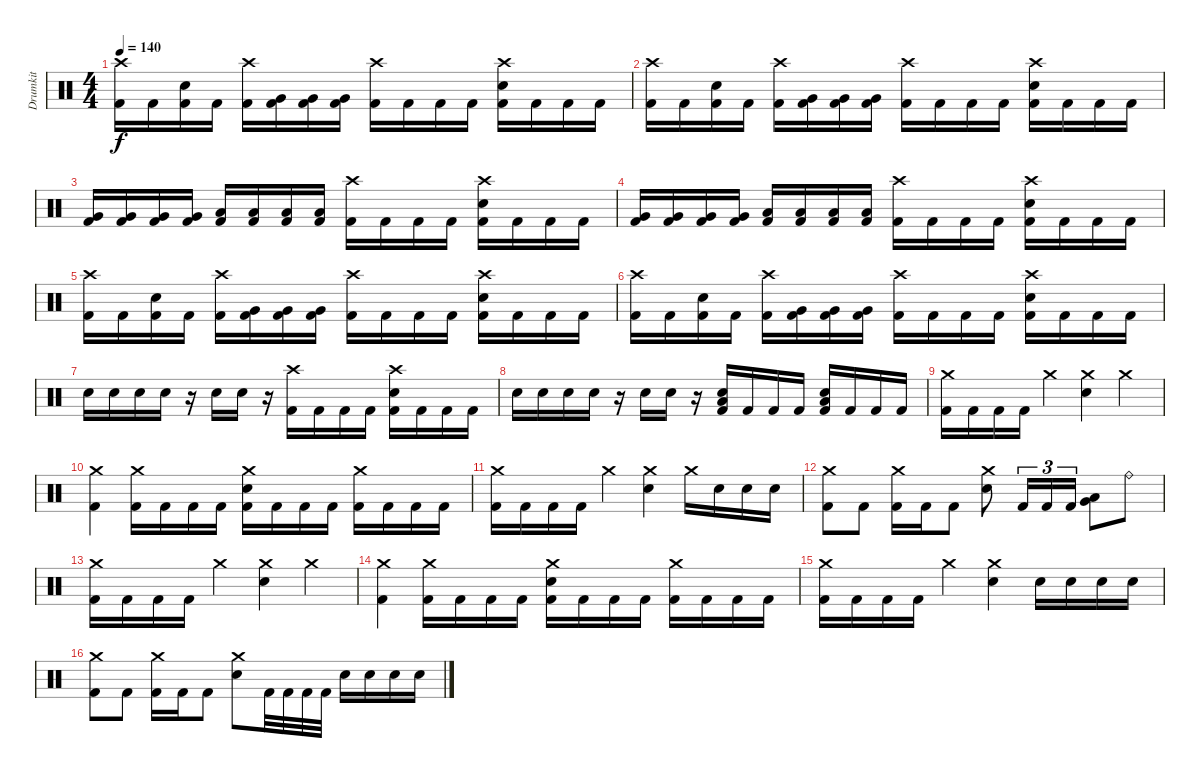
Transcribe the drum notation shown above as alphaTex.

\track ("Drumkit" "Drumkit") {instrument percussion}
\staff {score}
\articulation defaults
\ts (4 4)
\tempo 140
\clef neutral
\ks c
("Crash high (hit)" "Kick (hit) 2").16{dy f} "Kick (hit) 2".16 ("Electric Snare (hit)" "Kick (hit) 2").16 "Kick (hit) 2".16 ("Crash high (hit)" "Kick (hit) 2").16 ("Very Low Tom (hit)" "Kick (hit) 2").16 ("Very Low Tom (hit)" "Kick (hit) 2").16 ("Very Low Tom (hit)" "Kick (hit) 2").16 ("Crash high (hit)" "Kick (hit) 2").16 "Kick (hit) 2".16 "Kick (hit) 2".16 "Kick (hit) 2".16 ("Crash high (hit)" "Electric Snare (hit)" "Kick (hit) 2").16 "Kick (hit) 2".16 "Kick (hit) 2".16 "Kick (hit) 2".16 |
("Crash high (hit)" "Kick (hit) 2").16 "Kick (hit) 2".16 ("Electric Snare (hit)" "Kick (hit) 2").16 "Kick (hit) 2".16 ("Crash high (hit)" "Kick (hit) 2").16 ("Very Low Tom (hit)" "Kick (hit) 2").16 ("Very Low Tom (hit)" "Kick (hit) 2").16 ("Very Low Tom (hit)" "Kick (hit) 2").16 ("Crash high (hit)" "Kick (hit) 2").16 "Kick (hit) 2".16 "Kick (hit) 2".16 "Kick (hit) 2".16 ("Crash high (hit)" "Electric Snare (hit)" "Kick (hit) 2").16 "Kick (hit) 2".16 "Kick (hit) 2".16 "Kick (hit) 2".16 |
("Very Low Tom (hit)" "Kick (hit) 2").16 ("Very Low Tom (hit)" "Kick (hit) 2").16 ("Very Low Tom (hit)" "Kick (hit) 2").16 ("Very Low Tom (hit)" "Kick (hit) 2").16 ("Low Floor Tom (hit)" "Kick (hit) 2").16 ("Low Floor Tom (hit)" "Kick (hit) 2").16 ("Low Floor Tom (hit)" "Kick (hit) 2").16 ("Low Floor Tom (hit)" "Kick (hit) 2").16 ("Crash high (hit)" "Kick (hit) 2").16 "Kick (hit) 2".16 "Kick (hit) 2".16 "Kick (hit) 2".16 ("Crash high (hit)" "Electric Snare (hit)" "Kick (hit) 2").16 "Kick (hit) 2".16 "Kick (hit) 2".16 "Kick (hit) 2".16 |
("Very Low Tom (hit)" "Kick (hit) 2").16 ("Very Low Tom (hit)" "Kick (hit) 2").16 ("Very Low Tom (hit)" "Kick (hit) 2").16 ("Very Low Tom (hit)" "Kick (hit) 2").16 ("Low Floor Tom (hit)" "Kick (hit) 2").16 ("Low Floor Tom (hit)" "Kick (hit) 2").16 ("Low Floor Tom (hit)" "Kick (hit) 2").16 ("Low Floor Tom (hit)" "Kick (hit) 2").16 ("Crash high (hit)" "Kick (hit) 2").16 "Kick (hit) 2".16 "Kick (hit) 2".16 "Kick (hit) 2".16 ("Crash high (hit)" "Electric Snare (hit)" "Kick (hit) 2").16 "Kick (hit) 2".16 "Kick (hit) 2".16 "Kick (hit) 2".16 |
("Crash high (hit)" "Kick (hit) 2").16 "Kick (hit) 2".16 ("Electric Snare (hit)" "Kick (hit) 2").16 "Kick (hit) 2".16 ("Crash high (hit)" "Kick (hit) 2").16 ("Very Low Tom (hit)" "Kick (hit) 2").16 ("Very Low Tom (hit)" "Kick (hit) 2").16 ("Very Low Tom (hit)" "Kick (hit) 2").16 ("Crash high (hit)" "Kick (hit) 2").16 "Kick (hit) 2".16 "Kick (hit) 2".16 "Kick (hit) 2".16 ("Crash high (hit)" "Electric Snare (hit)" "Kick (hit) 2").16 "Kick (hit) 2".16 "Kick (hit) 2".16 "Kick (hit) 2".16 |
("Crash high (hit)" "Kick (hit) 2").16 "Kick (hit) 2".16 ("Electric Snare (hit)" "Kick (hit) 2").16 "Kick (hit) 2".16 ("Crash high (hit)" "Kick (hit) 2").16 ("Very Low Tom (hit)" "Kick (hit) 2").16 ("Very Low Tom (hit)" "Kick (hit) 2").16 ("Very Low Tom (hit)" "Kick (hit) 2").16 ("Crash high (hit)" "Kick (hit) 2").16 "Kick (hit) 2".16 "Kick (hit) 2".16 "Kick (hit) 2".16 ("Crash high (hit)" "Electric Snare (hit)" "Kick (hit) 2").16 "Kick (hit) 2".16 "Kick (hit) 2".16 "Kick (hit) 2".16 |
"Electric Snare (hit)".16 "Electric Snare (hit)".16 "Electric Snare (hit)".16 "Electric Snare (hit)".16 r.16 "Electric Snare (hit)".16 "Electric Snare (hit)".16 r.16 ("Crash high (hit)" "Kick (hit) 2").16 "Kick (hit) 2".16 "Kick (hit) 2".16 "Kick (hit) 2".16 ("Crash high (hit)" "Electric Snare (hit)" "Kick (hit) 2").16 "Kick (hit) 2".16 "Kick (hit) 2".16 "Kick (hit) 2".16 |
"Electric Snare (hit)".16 "Electric Snare (hit)".16 "Electric Snare (hit)".16 "Electric Snare (hit)".16 r.16 "Electric Snare (hit)".16 "Electric Snare (hit)".16 r.16 ("Low Floor Tom (hit)" "Electric Snare (hit)" "Kick (hit) 2").16 "Kick (hit) 2".16 "Kick (hit) 2".16 "Kick (hit) 2".16 ("Low Floor Tom (hit)" "Electric Snare (hit)" "Kick (hit) 2").16 "Kick (hit) 2".16 "Kick (hit) 2".16 "Kick (hit) 2".16 |
("Crash medium (hit)" "Kick (hit) 2").16 "Kick (hit) 2".16 "Kick (hit) 2".16 "Kick (hit) 2".16 "Crash medium (hit)".4 ("Crash medium (hit)" "Electric Snare (hit)").4 "Crash medium (hit)".4 |
("Crash medium (hit)" "Kick (hit) 2").4 ("Crash medium (hit)" "Kick (hit) 2").16 "Kick (hit) 2".16 "Kick (hit) 2".16 "Kick (hit) 2".16 ("Crash medium (hit)" "Electric Snare (hit)" "Kick (hit) 2").16 "Kick (hit) 2".16 "Kick (hit) 2".16 "Kick (hit) 2".16 ("Crash medium (hit)" "Kick (hit) 2").16 "Kick (hit) 2".16 "Kick (hit) 2".16 "Kick (hit) 2".16 |
("Crash medium (hit)" "Kick (hit) 2").16 "Kick (hit) 2".16 "Kick (hit) 2".16 "Kick (hit) 2".16 "Crash medium (hit)".4 ("Crash medium (hit)" "Electric Snare (hit)").4 "Crash medium (hit)".16 "Electric Snare (hit)".16 "Electric Snare (hit)".16 "Electric Snare (hit)".16 |
("Crash medium (hit)" "Kick (hit) 2").8 "Kick (hit) 2".8 ("Crash medium (hit)" "Kick (hit) 2").16 "Kick (hit) 2".16 "Kick (hit) 2".8 ("Crash medium (hit)" "Electric Snare (hit)").8 "Kick (hit) 2".16{tu (3 2)} "Kick (hit) 2".16{tu (3 2)} "Kick (hit) 2".16{tu (3 2)} ("Very Low Tom (hit)" "Low Floor Tom (hit)").8 "Ride (bell)".8 |
("Crash medium (hit)" "Kick (hit) 2").16 "Kick (hit) 2".16 "Kick (hit) 2".16 "Kick (hit) 2".16 "Crash medium (hit)".4 ("Crash medium (hit)" "Electric Snare (hit)").4 "Crash medium (hit)".4 |
("Crash medium (hit)" "Kick (hit) 2").4 ("Crash medium (hit)" "Kick (hit) 2").16 "Kick (hit) 2".16 "Kick (hit) 2".16 "Kick (hit) 2".16 ("Crash medium (hit)" "Electric Snare (hit)" "Kick (hit) 2").16 "Kick (hit) 2".16 "Kick (hit) 2".16 "Kick (hit) 2".16 ("Crash medium (hit)" "Kick (hit) 2").16 "Kick (hit) 2".16 "Kick (hit) 2".16 "Kick (hit) 2".16 |
("Crash medium (hit)" "Kick (hit) 2").16 "Kick (hit) 2".16 "Kick (hit) 2".16 "Kick (hit) 2".16 "Crash medium (hit)".4 ("Crash medium (hit)" "Electric Snare (hit)").4 "Electric Snare (hit)".16 "Electric Snare (hit)".16 "Electric Snare (hit)".16 "Electric Snare (hit)".16 |
("Crash medium (hit)" "Kick (hit) 2").8 "Kick (hit) 2".8 ("Crash medium (hit)" "Kick (hit) 2").16 "Kick (hit) 2".16 "Kick (hit) 2".8 ("Crash medium (hit)" "Electric Snare (hit)").8 "Kick (hit) 2".32 "Kick (hit) 2".32 "Kick (hit) 2".32 "Kick (hit) 2".32 "Electric Snare (hit)".16 "Electric Snare (hit)".16 "Electric Snare (hit)".16 "Electric Snare (hit)".16
